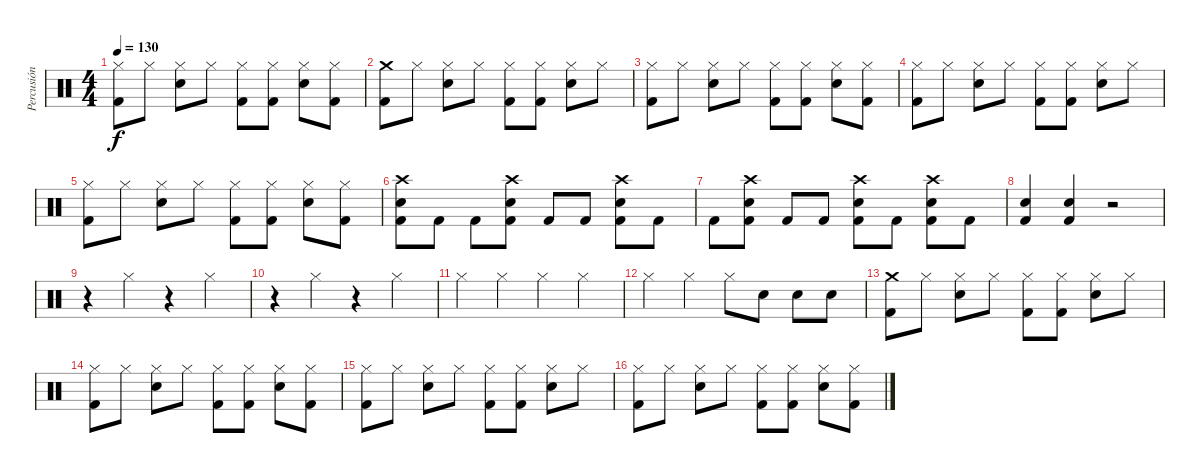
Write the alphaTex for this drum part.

\track ("Percusión" "Percusión") {instrument percussion}
\staff {score}
\articulation defaults
\ts (4 4)
\tempo 130
\clef neutral
\ks c
("Kick (hit) 2" "Hi-Hat (closed)").8{dy f} "Hi-Hat (closed)".8 ("Snare (hit) 2" "Hi-Hat (closed)").8 "Hi-Hat (closed)".8 ("Kick (hit) 2" "Hi-Hat (closed)").8 ("Kick (hit) 2" "Hi-Hat (closed)").8 ("Snare (hit) 2" "Hi-Hat (closed)").8 ("Kick (hit) 2" "Hi-Hat (closed)").8 |
("Kick (hit) 2" "Crash medium (hit)").8 "Hi-Hat (closed)".8 ("Snare (hit) 2" "Hi-Hat (closed)").8 "Hi-Hat (closed)".8 ("Kick (hit) 2" "Hi-Hat (closed)").8 ("Kick (hit) 2" "Hi-Hat (closed)").8 ("Snare (hit) 2" "Hi-Hat (closed)").8 "Hi-Hat (closed)".8 |
("Kick (hit) 2" "Hi-Hat (closed)").8 "Hi-Hat (closed)".8 ("Snare (hit) 2" "Hi-Hat (closed)").8 "Hi-Hat (closed)".8 ("Kick (hit) 2" "Hi-Hat (closed)").8 ("Kick (hit) 2" "Hi-Hat (closed)").8 ("Snare (hit) 2" "Hi-Hat (closed)").8 ("Kick (hit) 2" "Hi-Hat (closed)").8 |
("Kick (hit) 2" "Hi-Hat (closed)").8 "Hi-Hat (closed)".8 ("Snare (hit) 2" "Hi-Hat (closed)").8 "Hi-Hat (closed)".8 ("Kick (hit) 2" "Hi-Hat (closed)").8 ("Kick (hit) 2" "Hi-Hat (closed)").8 ("Snare (hit) 2" "Hi-Hat (closed)").8 "Hi-Hat (closed)".8 |
("Kick (hit) 2" "Hi-Hat (closed)").8 "Hi-Hat (closed)".8 ("Snare (hit) 2" "Hi-Hat (closed)").8 "Hi-Hat (closed)".8 ("Kick (hit) 2" "Hi-Hat (closed)").8 ("Kick (hit) 2" "Hi-Hat (closed)").8 ("Snare (hit) 2" "Hi-Hat (closed)").8 ("Kick (hit) 2" "Hi-Hat (closed)").8 |
("Kick (hit) 2" "Snare (hit) 2" "Crash high (hit)").8 "Kick (hit) 2".8 "Kick (hit) 2".8 ("Kick (hit) 2" "Snare (hit) 2" "Crash high (hit)").8 "Kick (hit) 2".8 "Kick (hit) 2".8 ("Kick (hit) 2" "Snare (hit) 2" "Crash high (hit)").8 "Kick (hit) 2".8 |
"Kick (hit) 2".8 ("Kick (hit) 2" "Snare (hit) 2" "Crash high (hit)").8 "Kick (hit) 2".8 "Kick (hit) 2".8 ("Kick (hit) 2" "Snare (hit) 2" "Crash high (hit)").8 "Kick (hit) 2".8 ("Kick (hit) 2" "Snare (hit) 2" "Crash high (hit)").8 "Kick (hit) 2".8 |
("Kick (hit) 2" "Snare (hit) 2").4 ("Kick (hit) 2" "Snare (hit) 2").4 r.2 |
r.4 "Hi-Hat (closed)".4 r.4 "Hi-Hat (closed)".4 |
r.4 "Hi-Hat (closed)".4 r.4 "Hi-Hat (closed)".4 |
"Hi-Hat (closed)".4 "Hi-Hat (closed)".4 "Hi-Hat (closed)".4 "Hi-Hat (closed)".4 |
"Hi-Hat (closed)".4 "Hi-Hat (closed)".4 "Hi-Hat (closed)".8 "Snare (hit) 2".8 "Snare (hit) 2".8 "Snare (hit) 2".8 |
("Kick (hit) 2" "Crash medium (hit)").8 "Hi-Hat (closed)".8 ("Snare (hit) 2" "Hi-Hat (closed)").8 "Hi-Hat (closed)".8 ("Kick (hit) 2" "Hi-Hat (closed)").8 ("Kick (hit) 2" "Hi-Hat (closed)").8 ("Snare (hit) 2" "Hi-Hat (closed)").8 "Hi-Hat (closed)".8 |
("Kick (hit) 2" "Hi-Hat (closed)").8 "Hi-Hat (closed)".8 ("Snare (hit) 2" "Hi-Hat (closed)").8 "Hi-Hat (closed)".8 ("Kick (hit) 2" "Hi-Hat (closed)").8 ("Kick (hit) 2" "Hi-Hat (closed)").8 ("Snare (hit) 2" "Hi-Hat (closed)").8 ("Kick (hit) 2" "Hi-Hat (closed)").8 |
("Kick (hit) 2" "Hi-Hat (closed)").8 "Hi-Hat (closed)".8 ("Snare (hit) 2" "Hi-Hat (closed)").8 "Hi-Hat (closed)".8 ("Kick (hit) 2" "Hi-Hat (closed)").8 ("Kick (hit) 2" "Hi-Hat (closed)").8 ("Snare (hit) 2" "Hi-Hat (closed)").8 "Hi-Hat (closed)".8 |
("Kick (hit) 2" "Hi-Hat (closed)").8 "Hi-Hat (closed)".8 ("Snare (hit) 2" "Hi-Hat (closed)").8 "Hi-Hat (closed)".8 ("Kick (hit) 2" "Hi-Hat (closed)").8 ("Kick (hit) 2" "Hi-Hat (closed)").8 ("Snare (hit) 2" "Hi-Hat (closed)").8 ("Kick (hit) 2" "Hi-Hat (closed)").8
